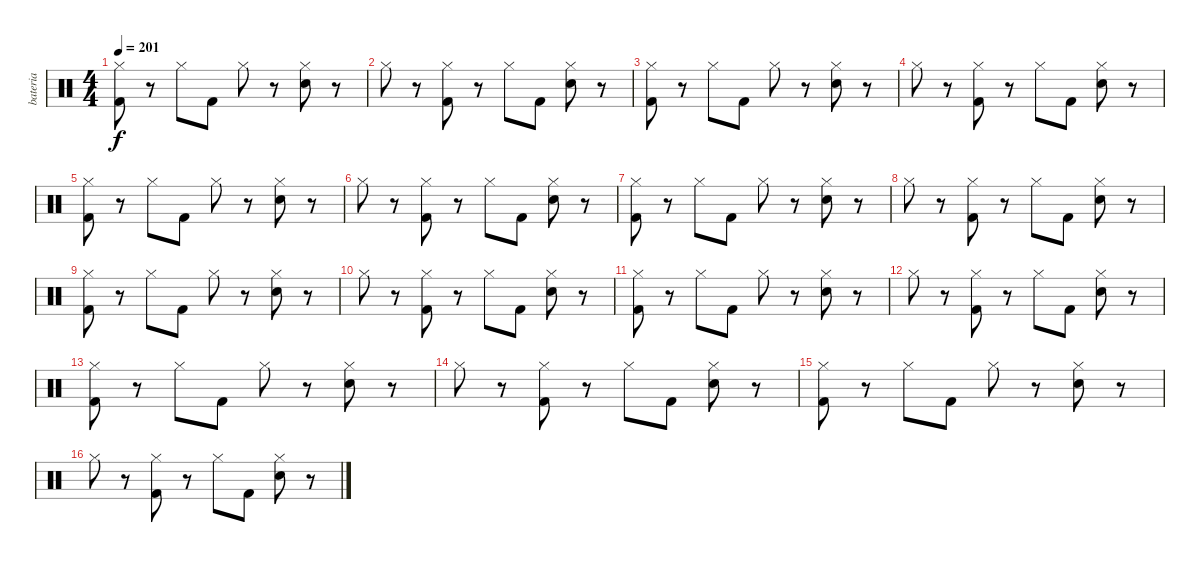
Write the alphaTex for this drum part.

\track ("bateria" "bateria") {instrument percussion}
\staff {score}
\articulation defaults
\ts (4 4)
\tempo 201
\clef neutral
\ks c
("Hi-Hat (closed)" "Kick (hit) 2").8{dy f} r.8 "Hi-Hat (closed)".8 "Kick (hit) 2".8 "Hi-Hat (closed)".8 r.8 ("Hi-Hat (closed)" "Electric Snare (hit)").8 r.8 |
"Hi-Hat (closed)".8 r.8 ("Hi-Hat (closed)" "Kick (hit) 2").8 r.8 "Hi-Hat (closed)".8 "Kick (hit) 2".8 ("Hi-Hat (closed)" "Electric Snare (hit)").8 r.8 |
("Hi-Hat (closed)" "Kick (hit) 2").8 r.8 "Hi-Hat (closed)".8 "Kick (hit) 2".8 "Hi-Hat (closed)".8 r.8 ("Hi-Hat (closed)" "Electric Snare (hit)").8 r.8 |
"Hi-Hat (closed)".8 r.8 ("Hi-Hat (closed)" "Kick (hit) 2").8 r.8 "Hi-Hat (closed)".8 "Kick (hit) 2".8 ("Hi-Hat (closed)" "Electric Snare (hit)").8 r.8 |
("Hi-Hat (closed)" "Kick (hit) 2").8 r.8 "Hi-Hat (closed)".8 "Kick (hit) 2".8 "Hi-Hat (closed)".8 r.8 ("Hi-Hat (closed)" "Electric Snare (hit)").8 r.8 |
"Hi-Hat (closed)".8 r.8 ("Hi-Hat (closed)" "Kick (hit) 2").8 r.8 "Hi-Hat (closed)".8 "Kick (hit) 2".8 ("Hi-Hat (closed)" "Electric Snare (hit)").8 r.8 |
("Hi-Hat (closed)" "Kick (hit) 2").8 r.8 "Hi-Hat (closed)".8 "Kick (hit) 2".8 "Hi-Hat (closed)".8 r.8 ("Hi-Hat (closed)" "Electric Snare (hit)").8 r.8 |
"Hi-Hat (closed)".8 r.8 ("Hi-Hat (closed)" "Kick (hit) 2").8 r.8 "Hi-Hat (closed)".8 "Kick (hit) 2".8 ("Hi-Hat (closed)" "Electric Snare (hit)").8 r.8 |
("Hi-Hat (closed)" "Kick (hit) 2").8 r.8 "Hi-Hat (closed)".8 "Kick (hit) 2".8 "Hi-Hat (closed)".8 r.8 ("Hi-Hat (closed)" "Electric Snare (hit)").8 r.8 |
"Hi-Hat (closed)".8 r.8 ("Hi-Hat (closed)" "Kick (hit) 2").8 r.8 "Hi-Hat (closed)".8 "Kick (hit) 2".8 ("Hi-Hat (closed)" "Electric Snare (hit)").8 r.8 |
("Hi-Hat (closed)" "Kick (hit) 2").8 r.8 "Hi-Hat (closed)".8 "Kick (hit) 2".8 "Hi-Hat (closed)".8 r.8 ("Hi-Hat (closed)" "Electric Snare (hit)").8 r.8 |
"Hi-Hat (closed)".8 r.8 ("Hi-Hat (closed)" "Kick (hit) 2").8 r.8 "Hi-Hat (closed)".8 "Kick (hit) 2".8 ("Hi-Hat (closed)" "Electric Snare (hit)").8 r.8 |
("Hi-Hat (closed)" "Kick (hit) 2").8 r.8 "Hi-Hat (closed)".8 "Kick (hit) 2".8 "Hi-Hat (closed)".8 r.8 ("Hi-Hat (closed)" "Electric Snare (hit)").8 r.8 |
"Hi-Hat (closed)".8 r.8 ("Hi-Hat (closed)" "Kick (hit) 2").8 r.8 "Hi-Hat (closed)".8 "Kick (hit) 2".8 ("Hi-Hat (closed)" "Electric Snare (hit)").8 r.8 |
("Hi-Hat (closed)" "Kick (hit) 2").8 r.8 "Hi-Hat (closed)".8 "Kick (hit) 2".8 "Hi-Hat (closed)".8 r.8 ("Hi-Hat (closed)" "Electric Snare (hit)").8 r.8 |
"Hi-Hat (closed)".8 r.8 ("Hi-Hat (closed)" "Kick (hit) 2").8 r.8 "Hi-Hat (closed)".8 "Kick (hit) 2".8 ("Hi-Hat (closed)" "Electric Snare (hit)").8 r.8
